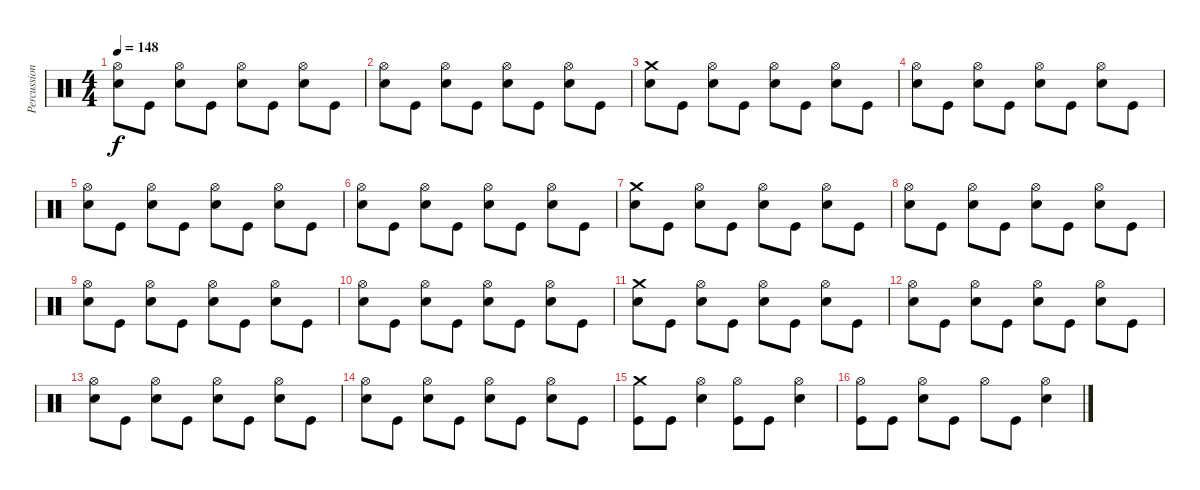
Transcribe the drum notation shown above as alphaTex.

\track ("Percussion" "Percussion") {instrument percussion}
\staff {score}
\articulation defaults
\ts (4 4)
\tempo 148
\clef neutral
\ks c
("Hi-Hat (open)" "Electric Snare (hit)").8{dy f} "Kick (hit)".8 ("Hi-Hat (open)" "Electric Snare (hit)").8 "Kick (hit)".8 ("Hi-Hat (open)" "Electric Snare (hit)").8 "Kick (hit)".8 ("Hi-Hat (open)" "Electric Snare (hit)").8 "Kick (hit)".8 |
("Hi-Hat (open)" "Electric Snare (hit)").8 "Kick (hit)".8 ("Hi-Hat (open)" "Electric Snare (hit)").8 "Kick (hit)".8 ("Hi-Hat (open)" "Electric Snare (hit)").8 "Kick (hit)".8 ("Hi-Hat (open)" "Electric Snare (hit)").8 "Kick (hit)".8 |
("Crash medium (hit)" "Electric Snare (hit)").8 "Kick (hit)".8 ("Hi-Hat (open)" "Electric Snare (hit)").8 "Kick (hit)".8 ("Hi-Hat (open)" "Electric Snare (hit)").8 "Kick (hit)".8 ("Hi-Hat (open)" "Electric Snare (hit)").8 "Kick (hit)".8 |
("Hi-Hat (open)" "Electric Snare (hit)").8 "Kick (hit)".8 ("Hi-Hat (open)" "Electric Snare (hit)").8 "Kick (hit)".8 ("Hi-Hat (open)" "Electric Snare (hit)").8 "Kick (hit)".8 ("Hi-Hat (open)" "Electric Snare (hit)").8 "Kick (hit)".8 |
("Hi-Hat (open)" "Electric Snare (hit)").8 "Kick (hit)".8 ("Hi-Hat (open)" "Electric Snare (hit)").8 "Kick (hit)".8 ("Hi-Hat (open)" "Electric Snare (hit)").8 "Kick (hit)".8 ("Hi-Hat (open)" "Electric Snare (hit)").8 "Kick (hit)".8 |
("Hi-Hat (open)" "Electric Snare (hit)").8 "Kick (hit)".8 ("Hi-Hat (open)" "Electric Snare (hit)").8 "Kick (hit)".8 ("Hi-Hat (open)" "Electric Snare (hit)").8 "Kick (hit)".8 ("Hi-Hat (open)" "Electric Snare (hit)").8 "Kick (hit)".8 |
("Crash medium (hit)" "Electric Snare (hit)").8 "Kick (hit)".8 ("Hi-Hat (open)" "Electric Snare (hit)").8 "Kick (hit)".8 ("Hi-Hat (open)" "Electric Snare (hit)").8 "Kick (hit)".8 ("Hi-Hat (open)" "Electric Snare (hit)").8 "Kick (hit)".8 |
("Hi-Hat (open)" "Electric Snare (hit)").8 "Kick (hit)".8 ("Hi-Hat (open)" "Electric Snare (hit)").8 "Kick (hit)".8 ("Hi-Hat (open)" "Electric Snare (hit)").8 "Kick (hit)".8 ("Hi-Hat (open)" "Electric Snare (hit)").8 "Kick (hit)".8 |
("Hi-Hat (open)" "Electric Snare (hit)").8 "Kick (hit)".8 ("Hi-Hat (open)" "Electric Snare (hit)").8 "Kick (hit)".8 ("Hi-Hat (open)" "Electric Snare (hit)").8 "Kick (hit)".8 ("Hi-Hat (open)" "Electric Snare (hit)").8 "Kick (hit)".8 |
("Hi-Hat (open)" "Electric Snare (hit)").8 "Kick (hit)".8 ("Hi-Hat (open)" "Electric Snare (hit)").8 "Kick (hit)".8 ("Hi-Hat (open)" "Electric Snare (hit)").8 "Kick (hit)".8 ("Hi-Hat (open)" "Electric Snare (hit)").8 "Kick (hit)".8 |
("Crash medium (hit)" "Electric Snare (hit)").8 "Kick (hit)".8 ("Hi-Hat (open)" "Electric Snare (hit)").8 "Kick (hit)".8 ("Hi-Hat (open)" "Electric Snare (hit)").8 "Kick (hit)".8 ("Hi-Hat (open)" "Electric Snare (hit)").8 "Kick (hit)".8 |
("Hi-Hat (open)" "Electric Snare (hit)").8 "Kick (hit)".8 ("Hi-Hat (open)" "Electric Snare (hit)").8 "Kick (hit)".8 ("Hi-Hat (open)" "Electric Snare (hit)").8 "Kick (hit)".8 ("Hi-Hat (open)" "Electric Snare (hit)").8 "Kick (hit)".8 |
("Hi-Hat (open)" "Electric Snare (hit)").8 "Kick (hit)".8 ("Hi-Hat (open)" "Electric Snare (hit)").8 "Kick (hit)".8 ("Hi-Hat (open)" "Electric Snare (hit)").8 "Kick (hit)".8 ("Hi-Hat (open)" "Electric Snare (hit)").8 "Kick (hit)".8 |
("Hi-Hat (open)" "Electric Snare (hit)").8 "Kick (hit)".8 ("Hi-Hat (open)" "Electric Snare (hit)").8 "Kick (hit)".8 ("Hi-Hat (open)" "Electric Snare (hit)").8 "Kick (hit)".8 ("Hi-Hat (open)" "Electric Snare (hit)").8 "Kick (hit)".8 |
("Crash medium (hit)" "Kick (hit)").8 "Kick (hit)".8 ("Hi-Hat (open)" "Electric Snare (hit)").4 ("Hi-Hat (open)" "Kick (hit)").8 "Kick (hit)".8 ("Hi-Hat (open)" "Electric Snare (hit)").4 |
("Hi-Hat (open)" "Kick (hit)").8 "Kick (hit)".8 ("Hi-Hat (open)" "Electric Snare (hit)").8 "Kick (hit)".8 "Hi-Hat (open)".8 "Kick (hit)".8 ("Hi-Hat (open)" "Electric Snare (hit)").4
